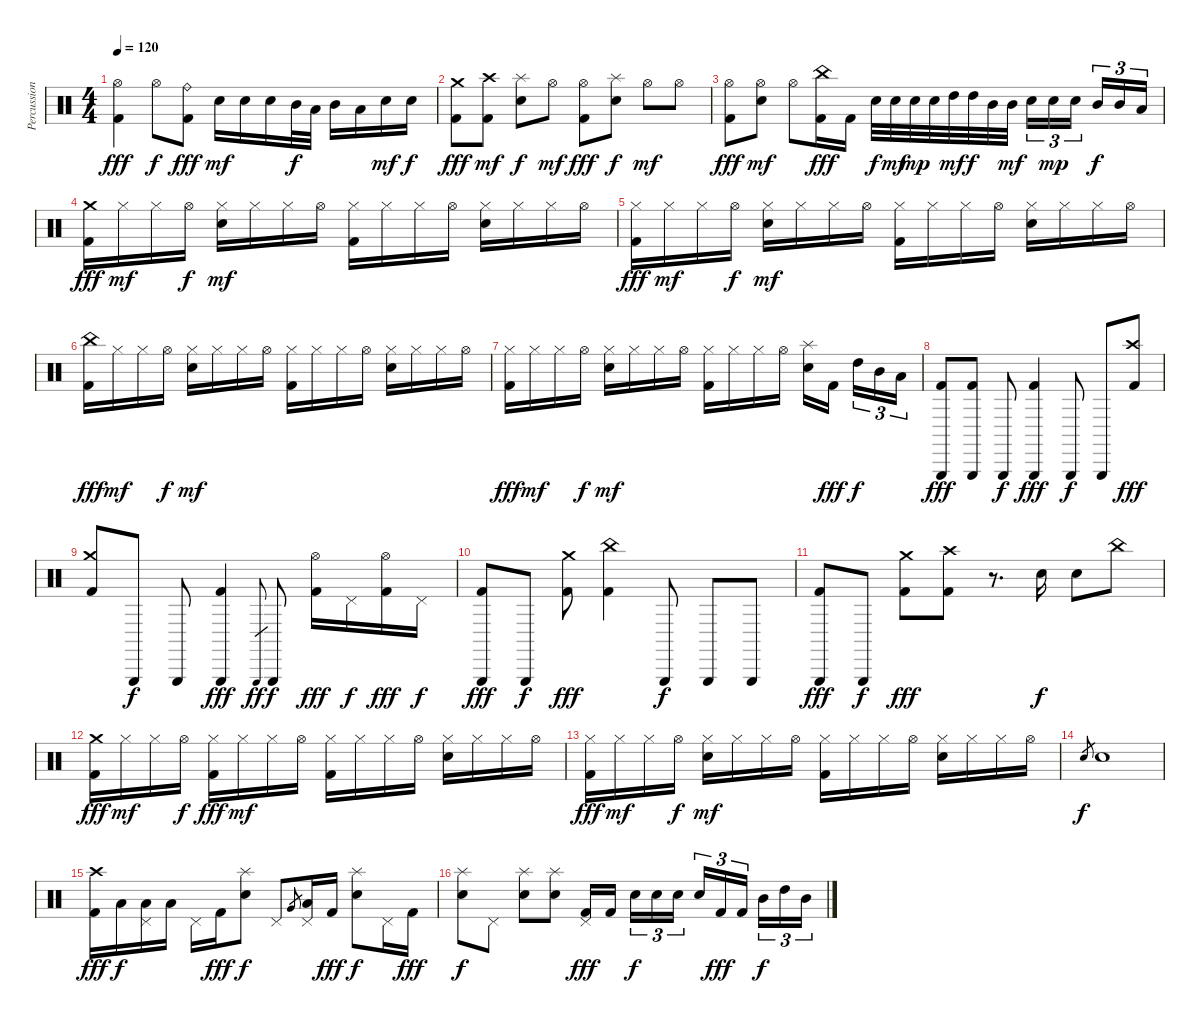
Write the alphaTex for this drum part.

\track ("Percussion" "Percussion") {instrument percussion}
\staff {score}
\articulation defaults
\ts (4 4)
\tempo 120
\clef neutral
\ks c
("Hi-Hat (open)" "Kick (hit) 2").4{dy fff} "Hi-Hat (open)".8{dy f} ("Ride (bell)" "Kick (hit) 2").8{dy fff} "Electric Snare (hit)".16{dy mf} "Electric Snare (hit)".16 "Electric Snare (hit)".16 "Mid Tom (hit)".32{dy f} "Low Tom (hit)".32 "Mid Tom (hit)".16 "Low Tom (hit)".16 "Electric Snare (hit)".16{dy mf} "Electric Snare (hit)".16{dy f} |
("Crash medium (hit)" "Kick (hit) 2").8{dy fff} ("Crash high (hit)" "Kick (hit) 2").8{dy mf} ("Splash (hit)" "Electric Snare (hit)").8{dy f} "Hi-Hat (open)".8{dy mf} ("Hi-Hat (open)" "Kick (hit) 2").8{dy fff} ("Splash (hit)" "Electric Snare (hit)").8{dy f} "Hi-Hat (open)".8{dy mf} "Hi-Hat (open)".8 |
("Hi-Hat (open)" "Kick (hit) 2").8{dy fff} ("Hi-Hat (open)" "Electric Snare (hit)").8{dy mf} "Hi-Hat (open)".8 ("China (hit)" "Kick (hit) 2").16{dy fff} "Kick (hit) 2".16 "Electric Snare (hit)".32{dy f} "Electric Snare (hit)".32{dy mf} "Electric Snare (hit)".32{dy mp} "Electric Snare (hit)".32 "High Tom (hit)".32{dy mf} "High Tom (hit)".32{dy f} "Mid Tom (hit)".32 "Mid Tom (hit)".32{dy mf} "Electric Snare (hit)".16{tu (3 2)} "Electric Snare (hit)".16{tu (3 2) dy mp} "Electric Snare (hit)".16{tu (3 2)} "Mid Tom (hit)".16{tu (3 2) dy f} "Mid Tom (hit)".16{tu (3 2)} "Low Tom (hit)".16{tu (3 2)} |
("Crash medium (hit)" "Kick (hit) 2").16{dy fff} "Hi-Hat (closed)".16{dy mf} "Hi-Hat (closed)".16 "Hi-Hat (open)".16{dy f} ("Hi-Hat (closed)" "Electric Snare (hit)").16{dy mf} "Hi-Hat (closed)".16 "Hi-Hat (closed)".16 "Hi-Hat (open)".16 ("Hi-Hat (closed)" "Kick (hit) 2").16 "Hi-Hat (closed)".16 "Hi-Hat (closed)".16 "Hi-Hat (open)".16 ("Hi-Hat (closed)" "Electric Snare (hit)").16 "Hi-Hat (closed)".16 "Hi-Hat (closed)".16 "Hi-Hat (open)".16 |
("Hi-Hat (closed)" "Kick (hit) 2").16{dy fff} "Hi-Hat (closed)".16{dy mf} "Hi-Hat (closed)".16 "Hi-Hat (open)".16{dy f} ("Hi-Hat (closed)" "Electric Snare (hit)").16{dy mf} "Hi-Hat (closed)".16 "Hi-Hat (closed)".16 "Hi-Hat (open)".16 ("Hi-Hat (closed)" "Kick (hit) 2").16 "Hi-Hat (closed)".16 "Hi-Hat (closed)".16 "Hi-Hat (open)".16 ("Hi-Hat (closed)" "Electric Snare (hit)").16 "Hi-Hat (closed)".16 "Hi-Hat (closed)".16 "Hi-Hat (open)".16 |
("China (hit)" "Kick (hit) 2").16{dy fff} "Hi-Hat (closed)".16{dy mf} "Hi-Hat (closed)".16 "Hi-Hat (open)".16{dy f} ("Hi-Hat (closed)" "Electric Snare (hit)").16{dy mf} "Hi-Hat (closed)".16 "Hi-Hat (closed)".16 "Hi-Hat (open)".16 ("Hi-Hat (closed)" "Kick (hit) 2").16 "Hi-Hat (closed)".16 "Hi-Hat (closed)".16 "Hi-Hat (open)".16 ("Hi-Hat (closed)" "Electric Snare (hit)").16 "Hi-Hat (closed)".16 "Hi-Hat (closed)".16 "Hi-Hat (open)".16 |
("Hi-Hat (closed)" "Kick (hit) 2").16{dy fff} "Hi-Hat (closed)".16{dy mf} "Hi-Hat (closed)".16 "Hi-Hat (open)".16{dy f} ("Hi-Hat (closed)" "Electric Snare (hit)").16{dy mf} "Hi-Hat (closed)".16 "Hi-Hat (closed)".16 "Hi-Hat (open)".16 ("Hi-Hat (closed)" "Kick (hit) 2").16 "Hi-Hat (closed)".16 "Hi-Hat (closed)".16 "Hi-Hat (open)".16 ("Splash (hit)" "Electric Snare (hit)").16 "Kick (hit) 2".16{dy fff} "High Tom (hit)".16{tu (3 2) dy f} "Mid Tom (hit)".16{tu (3 2)} "Low Tom (hit)".16{tu (3 2)} |
("Triangle (hit)" "Kick (hit) 2").8{dy fff} ("Triangle (hit)" "Kick (hit) 2").8 "Triangle (hit)".8{dy f} ("Triangle (hit)" "Kick (hit) 2").4{dy fff} "Triangle (hit)".8{dy f} "Triangle (hit)".8 ("Crash high (hit)" "Kick (hit) 2").8{dy fff} |
("Crash medium (hit)" "Kick (hit) 2").8 "Triangle (hit)".8{dy f} "Triangle (hit)".8 ("Triangle (hit)" "Kick (hit) 2").4{dy fff} "Triangle (hit)".8{gr dy ff} "Triangle (hit)".8{dy f} ("Hi-Hat (open)" "Kick (hit) 2").16{dy fff} "Pedal Hi-Hat (hit)".16{dy f} ("Hi-Hat (open)" "Kick (hit) 2").16{dy fff} "Pedal Hi-Hat (hit)".16{dy f} |
("Triangle (hit)" "Kick (hit) 2").8{dy fff} "Triangle (hit)".8{dy f} ("Crash medium (hit)" "Kick (hit) 2").8{dy fff} ("China (hit)" "Kick (hit) 2").4 "Triangle (hit)".8{dy f} "Triangle (hit)".8 "Triangle (hit)".8 |
("Triangle (hit)" "Kick (hit) 2").8{dy fff} "Triangle (hit)".8{dy f} ("Crash medium (hit)" "Kick (hit) 2").8{dy fff} ("Crash high (hit)" "Kick (hit) 2").8 r.8{d} "Electric Snare (hit)".16{dy f} "Electric Snare (hit)".8 "China (hit)".8 |
("Crash medium (hit)" "Kick (hit) 2").16{dy fff} "Hi-Hat (closed)".16{dy mf} "Hi-Hat (closed)".16 "Hi-Hat (open)".16{dy f} ("Hi-Hat (closed)" "Kick (hit) 2").16{dy fff} "Hi-Hat (closed)".16{dy mf} "Hi-Hat (closed)".16 "Hi-Hat (open)".16 ("Hi-Hat (closed)" "Kick (hit) 2").16 "Hi-Hat (closed)".16 "Hi-Hat (closed)".16 "Hi-Hat (open)".16 ("Hi-Hat (closed)" "Electric Snare (hit)").16 "Hi-Hat (closed)".16 "Hi-Hat (closed)".16 "Hi-Hat (open)".16 |
("Hi-Hat (closed)" "Kick (hit) 2").16{dy fff} "Hi-Hat (closed)".16{dy mf} "Hi-Hat (closed)".16 "Hi-Hat (open)".16{dy f} ("Hi-Hat (closed)" "Electric Snare (hit)").16{dy mf} "Hi-Hat (closed)".16 "Hi-Hat (closed)".16 "Hi-Hat (open)".16 ("Hi-Hat (closed)" "Kick (hit) 2").16 "Hi-Hat (closed)".16 "Hi-Hat (closed)".16 "Hi-Hat (open)".16 ("Hi-Hat (closed)" "Electric Snare (hit)").16 "Hi-Hat (closed)".16 "Hi-Hat (closed)".16 "Hi-Hat (open)".16 |
"Electric Snare (hit)".8{gr dy f} "Electric Snare (hit)".1 |
("Crash high (hit)" "Kick (hit) 2").16{dy fff} "Low Tom (hit)".16{dy f} ("Pedal Hi-Hat (hit)" "Low Tom (hit)").16 "Low Tom (hit)".16 "Pedal Hi-Hat (hit)".16 "Kick (hit) 2".16{dy fff} ("Splash (hit)" "Electric Snare (hit)").8{dy f} "Pedal Hi-Hat (hit)".8 "Very Low Tom (hit)".8{gr} ("Pedal Hi-Hat (hit)" "Low Tom (hit)").16 "Kick (hit) 2".16{dy fff} ("Splash (hit)" "Electric Snare (hit)").8{dy f} "Pedal Hi-Hat (hit)".16 "Kick (hit) 2".16{dy fff} |
("Splash (hit)" "Electric Snare (hit)").8{dy f} "Pedal Hi-Hat (hit)".8 ("Splash (hit)" "Electric Snare (hit)").8 ("Splash (hit)" "Electric Snare (hit)").8 ("Pedal Hi-Hat (hit)" "Kick (hit) 2").16{dy fff} "Kick (hit) 2".16 "Electric Snare (hit)".16{tu (3 2) dy f} "Electric Snare (hit)".16{tu (3 2)} "Electric Snare (hit)".16{tu (3 2)} "Electric Snare (hit)".16{tu (3 2)} "Kick (hit) 2".16{tu (3 2) dy fff} "Kick (hit) 2".16{tu (3 2)} "Mid Tom (hit)".16{tu (3 2) dy f} "High Tom (hit)".16{tu (3 2)} "Mid Tom (hit)".16{tu (3 2)}
